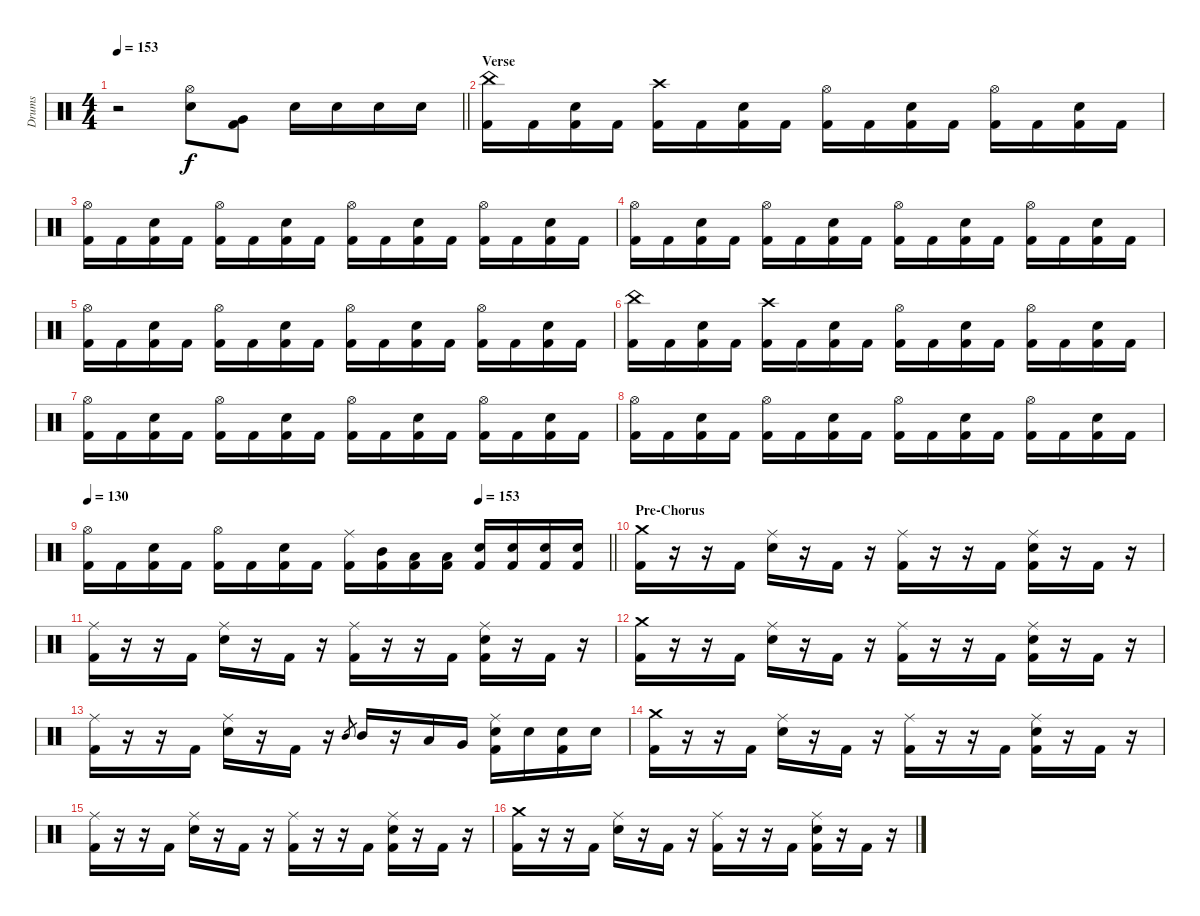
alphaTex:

\track ("Drums" "Drums") {instrument percussion}
\staff {score}
\articulation defaults
\ts (4 4)
\tempo 153
\clef neutral
\barLineRight lightlight
\ks c
r.2{dy f} ("Hi-Hat (open)" "Electric Snare (hit)").8 ("Very Low Tom (hit)" "Kick (hit) 2").8 "Electric Snare (hit)".16 "Electric Snare (hit)".16 "Electric Snare (hit)".16 "Electric Snare (hit)".16 |
\section ("" "Verse")
("China (hit)" "Kick (hit) 2").16{volume 13} "Kick (hit) 2".16 ("Electric Snare (hit)" "Kick (hit) 2").16 "Kick (hit) 2".16 ("Crash high (hit)" "Kick (hit) 2").16 "Kick (hit) 2".16 ("Electric Snare (hit)" "Kick (hit) 2").16 "Kick (hit) 2".16 ("Hi-Hat (open)" "Kick (hit) 2").16 "Kick (hit) 2".16 ("Electric Snare (hit)" "Kick (hit) 2").16 "Kick (hit) 2".16 ("Hi-Hat (open)" "Kick (hit) 2").16 "Kick (hit) 2".16 ("Electric Snare (hit)" "Kick (hit) 2").16 "Kick (hit) 2".16 |
("Hi-Hat (open)" "Kick (hit) 2").16 "Kick (hit) 2".16 ("Electric Snare (hit)" "Kick (hit) 2").16 "Kick (hit) 2".16 ("Hi-Hat (open)" "Kick (hit) 2").16 "Kick (hit) 2".16 ("Electric Snare (hit)" "Kick (hit) 2").16 "Kick (hit) 2".16 ("Hi-Hat (open)" "Kick (hit) 2").16 "Kick (hit) 2".16 ("Electric Snare (hit)" "Kick (hit) 2").16 "Kick (hit) 2".16 ("Hi-Hat (open)" "Kick (hit) 2").16 "Kick (hit) 2".16 ("Electric Snare (hit)" "Kick (hit) 2").16 "Kick (hit) 2".16 |
("Hi-Hat (open)" "Kick (hit) 2").16 "Kick (hit) 2".16 ("Electric Snare (hit)" "Kick (hit) 2").16 "Kick (hit) 2".16 ("Hi-Hat (open)" "Kick (hit) 2").16 "Kick (hit) 2".16 ("Electric Snare (hit)" "Kick (hit) 2").16 "Kick (hit) 2".16 ("Hi-Hat (open)" "Kick (hit) 2").16 "Kick (hit) 2".16 ("Electric Snare (hit)" "Kick (hit) 2").16 "Kick (hit) 2".16 ("Hi-Hat (open)" "Kick (hit) 2").16 "Kick (hit) 2".16 ("Electric Snare (hit)" "Kick (hit) 2").16 "Kick (hit) 2".16 |
("Hi-Hat (open)" "Kick (hit) 2").16 "Kick (hit) 2".16 ("Electric Snare (hit)" "Kick (hit) 2").16 "Kick (hit) 2".16 ("Hi-Hat (open)" "Kick (hit) 2").16 "Kick (hit) 2".16 ("Electric Snare (hit)" "Kick (hit) 2").16 "Kick (hit) 2".16 ("Hi-Hat (open)" "Kick (hit) 2").16 "Kick (hit) 2".16 ("Electric Snare (hit)" "Kick (hit) 2").16 "Kick (hit) 2".16 ("Hi-Hat (open)" "Kick (hit) 2").16 "Kick (hit) 2".16 ("Electric Snare (hit)" "Kick (hit) 2").16 "Kick (hit) 2".16 |
("China (hit)" "Kick (hit) 2").16 "Kick (hit) 2".16 ("Electric Snare (hit)" "Kick (hit) 2").16 "Kick (hit) 2".16 ("Crash high (hit)" "Kick (hit) 2").16 "Kick (hit) 2".16 ("Electric Snare (hit)" "Kick (hit) 2").16 "Kick (hit) 2".16 ("Hi-Hat (open)" "Kick (hit) 2").16 "Kick (hit) 2".16 ("Electric Snare (hit)" "Kick (hit) 2").16 "Kick (hit) 2".16 ("Hi-Hat (open)" "Kick (hit) 2").16 "Kick (hit) 2".16 ("Electric Snare (hit)" "Kick (hit) 2").16 "Kick (hit) 2".16 |
("Hi-Hat (open)" "Kick (hit) 2").16 "Kick (hit) 2".16 ("Electric Snare (hit)" "Kick (hit) 2").16 "Kick (hit) 2".16 ("Hi-Hat (open)" "Kick (hit) 2").16 "Kick (hit) 2".16 ("Electric Snare (hit)" "Kick (hit) 2").16 "Kick (hit) 2".16 ("Hi-Hat (open)" "Kick (hit) 2").16 "Kick (hit) 2".16 ("Electric Snare (hit)" "Kick (hit) 2").16 "Kick (hit) 2".16 ("Hi-Hat (open)" "Kick (hit) 2").16 "Kick (hit) 2".16 ("Electric Snare (hit)" "Kick (hit) 2").16 "Kick (hit) 2".16 |
("Hi-Hat (open)" "Kick (hit) 2").16 "Kick (hit) 2".16 ("Electric Snare (hit)" "Kick (hit) 2").16 "Kick (hit) 2".16 ("Hi-Hat (open)" "Kick (hit) 2").16 "Kick (hit) 2".16 ("Electric Snare (hit)" "Kick (hit) 2").16 "Kick (hit) 2".16 ("Hi-Hat (open)" "Kick (hit) 2").16 "Kick (hit) 2".16 ("Electric Snare (hit)" "Kick (hit) 2").16 "Kick (hit) 2".16 ("Hi-Hat (open)" "Kick (hit) 2").16 "Kick (hit) 2".16 ("Electric Snare (hit)" "Kick (hit) 2").16 "Kick (hit) 2".16 |
\tempo 130
\tempo (153 0.75)
\barLineRight lightlight
("Hi-Hat (open)" "Kick (hit) 2").16 "Kick (hit) 2".16 ("Electric Snare (hit)" "Kick (hit) 2").16 "Kick (hit) 2".16 ("Hi-Hat (open)" "Kick (hit) 2").16 "Kick (hit) 2".16 ("Electric Snare (hit)" "Kick (hit) 2").16 "Kick (hit) 2".16 ("Ride (middle)" "Kick (hit) 2").16 ("Mid Tom (hit)" "Kick (hit) 2").16 ("Low Tom (hit)" "Kick (hit) 2").16 ("Low Floor Tom (hit)" "Kick (hit) 2").16 ("Electric Snare (hit)" "Kick (hit) 2").16 ("Electric Snare (hit)" "Kick (hit) 2").16 ("Electric Snare (hit)" "Kick (hit) 2").16 ("Electric Snare (hit)" "Kick (hit) 2").16 |
\section ("" "Pre-Chorus")
("Crash medium (hit)" "Kick (hit) 2").16 r.16 r.16 "Kick (hit) 2".16 ("Ride (middle)" "Electric Snare (hit)").16 r.16 "Kick (hit) 2".16 r.16 ("Ride (middle)" "Kick (hit) 2").16 r.16 r.16 "Kick (hit) 2".16 ("Ride (middle)" "Electric Snare (hit)" "Kick (hit) 2").16 r.16 "Kick (hit) 2".16 r.16 |
("Ride (middle)" "Kick (hit) 2").16 r.16 r.16 "Kick (hit) 2".16 ("Ride (middle)" "Electric Snare (hit)").16 r.16 "Kick (hit) 2".16 r.16 ("Ride (middle)" "Kick (hit) 2").16 r.16 r.16 "Kick (hit) 2".16 ("Ride (middle)" "Electric Snare (hit)" "Kick (hit) 2").16 r.16 "Kick (hit) 2".16 r.16 |
("Crash medium (hit)" "Kick (hit) 2").16 r.16 r.16 "Kick (hit) 2".16 ("Ride (middle)" "Electric Snare (hit)").16 r.16 "Kick (hit) 2".16 r.16 ("Ride (middle)" "Kick (hit) 2").16 r.16 r.16 "Kick (hit) 2".16 ("Ride (middle)" "Electric Snare (hit)" "Kick (hit) 2").16 r.16 "Kick (hit) 2".16 r.16 |
("Ride (middle)" "Kick (hit) 2").16 r.16 r.16 "Kick (hit) 2".16 ("Ride (middle)" "Electric Snare (hit)").16 r.16 "Kick (hit) 2".16 r.16 "Mid Tom (hit)".8{gr} "Mid Tom (hit)".16 r.16 "Low Tom (hit)".16 "Very Low Tom (hit)".16 ("Ride (middle)" "Electric Snare (hit)" "Kick (hit) 2").16 "Electric Snare (hit)".16 ("Electric Snare (hit)" "Kick (hit) 2").16 "Electric Snare (hit)".16 |
("Crash medium (hit)" "Kick (hit) 2").16 r.16 r.16 "Kick (hit) 2".16 ("Ride (middle)" "Electric Snare (hit)").16 r.16 "Kick (hit) 2".16 r.16 ("Ride (middle)" "Kick (hit) 2").16 r.16 r.16 "Kick (hit) 2".16 ("Ride (middle)" "Electric Snare (hit)" "Kick (hit) 2").16 r.16 "Kick (hit) 2".16 r.16 |
("Ride (middle)" "Kick (hit) 2").16 r.16 r.16 "Kick (hit) 2".16 ("Ride (middle)" "Electric Snare (hit)").16 r.16 "Kick (hit) 2".16 r.16 ("Ride (middle)" "Kick (hit) 2").16 r.16 r.16 "Kick (hit) 2".16 ("Ride (middle)" "Electric Snare (hit)" "Kick (hit) 2").16 r.16 "Kick (hit) 2".16 r.16 |
("Crash medium (hit)" "Kick (hit) 2").16 r.16 r.16 "Kick (hit) 2".16 ("Ride (middle)" "Electric Snare (hit)").16 r.16 "Kick (hit) 2".16 r.16 ("Ride (middle)" "Kick (hit) 2").16 r.16 r.16 "Kick (hit) 2".16 ("Ride (middle)" "Electric Snare (hit)" "Kick (hit) 2").16 r.16 "Kick (hit) 2".16 r.16
